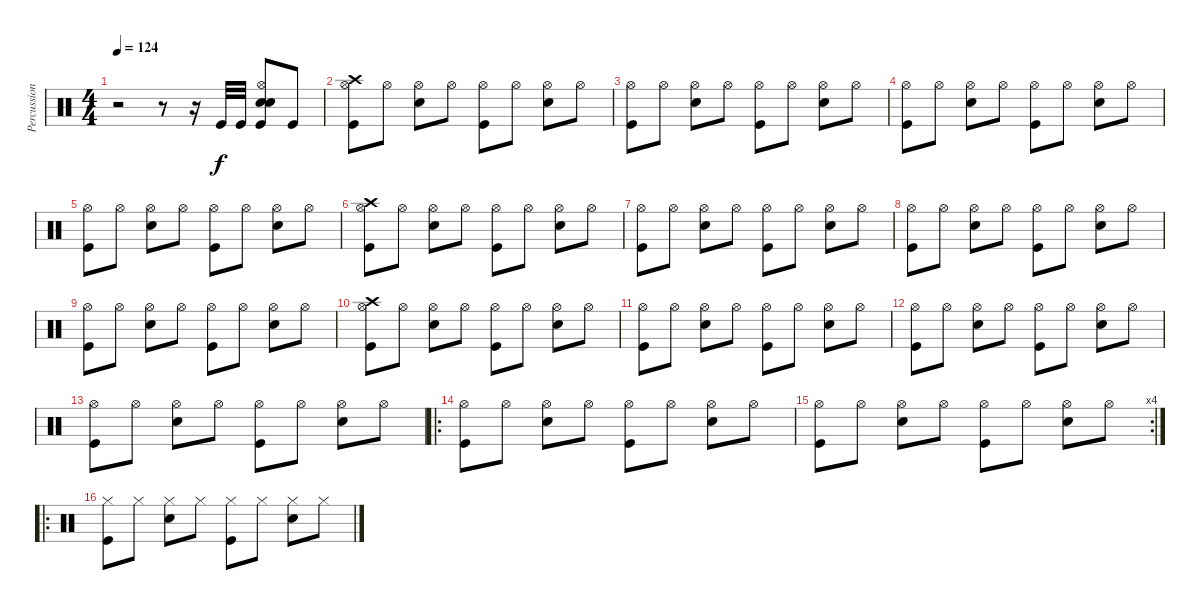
\track ("Percussions" "Percussion") {instrument percussion}
\staff {score}
\articulation defaults
\ts (4 4)
\tempo 124
\clef neutral
\ks c
r.2{dy f} r.8 r.16 "Kick (hit)".32 "Kick (hit)".32 ("Hi-Hat (open)" "Kick (hit)" "Electric Snare (hit)" "Snare (hit) 2").8 "Kick (hit)".8 |
("Hi-Hat (open)" "Kick (hit)" "Crash high (hit)").8 "Hi-Hat (open)".8 ("Hi-Hat (open)" "Electric Snare (hit)").8 "Hi-Hat (open)".8 ("Hi-Hat (open)" "Kick (hit)").8 "Hi-Hat (open)".8 ("Hi-Hat (open)" "Electric Snare (hit)").8 "Hi-Hat (open)".8 |
("Hi-Hat (open)" "Kick (hit)").8 "Hi-Hat (open)".8 ("Hi-Hat (open)" "Electric Snare (hit)").8 "Hi-Hat (open)".8 ("Hi-Hat (open)" "Kick (hit)").8 "Hi-Hat (open)".8 ("Hi-Hat (open)" "Electric Snare (hit)").8 "Hi-Hat (open)".8 |
("Hi-Hat (open)" "Kick (hit)").8 "Hi-Hat (open)".8 ("Hi-Hat (open)" "Electric Snare (hit)").8 "Hi-Hat (open)".8 ("Hi-Hat (open)" "Kick (hit)").8 "Hi-Hat (open)".8 ("Hi-Hat (open)" "Electric Snare (hit)").8 "Hi-Hat (open)".8 |
("Hi-Hat (open)" "Kick (hit)").8 "Hi-Hat (open)".8 ("Hi-Hat (open)" "Electric Snare (hit)").8 "Hi-Hat (open)".8 ("Hi-Hat (open)" "Kick (hit)").8 "Hi-Hat (open)".8 ("Hi-Hat (open)" "Electric Snare (hit)").8 "Hi-Hat (open)".8 |
("Hi-Hat (open)" "Kick (hit)" "Crash high (hit)").8 "Hi-Hat (open)".8 ("Hi-Hat (open)" "Electric Snare (hit)").8 "Hi-Hat (open)".8 ("Hi-Hat (open)" "Kick (hit)").8 "Hi-Hat (open)".8 ("Hi-Hat (open)" "Electric Snare (hit)").8 "Hi-Hat (open)".8 |
("Hi-Hat (open)" "Kick (hit)").8 "Hi-Hat (open)".8 ("Hi-Hat (open)" "Electric Snare (hit)").8 "Hi-Hat (open)".8 ("Hi-Hat (open)" "Kick (hit)").8 "Hi-Hat (open)".8 ("Hi-Hat (open)" "Electric Snare (hit)").8 "Hi-Hat (open)".8 |
("Hi-Hat (open)" "Kick (hit)").8 "Hi-Hat (open)".8 ("Hi-Hat (open)" "Electric Snare (hit)").8 "Hi-Hat (open)".8 ("Hi-Hat (open)" "Kick (hit)").8 "Hi-Hat (open)".8 ("Hi-Hat (open)" "Electric Snare (hit)").8 "Hi-Hat (open)".8 |
("Hi-Hat (open)" "Kick (hit)").8 "Hi-Hat (open)".8 ("Hi-Hat (open)" "Electric Snare (hit)").8 "Hi-Hat (open)".8 ("Hi-Hat (open)" "Kick (hit)").8 "Hi-Hat (open)".8 ("Hi-Hat (open)" "Electric Snare (hit)").8 "Hi-Hat (open)".8 |
("Hi-Hat (open)" "Kick (hit)" "Crash high (hit)").8 "Hi-Hat (open)".8 ("Hi-Hat (open)" "Electric Snare (hit)").8 "Hi-Hat (open)".8 ("Hi-Hat (open)" "Kick (hit)").8 "Hi-Hat (open)".8 ("Hi-Hat (open)" "Electric Snare (hit)").8 "Hi-Hat (open)".8 |
("Hi-Hat (open)" "Kick (hit)").8 "Hi-Hat (open)".8 ("Hi-Hat (open)" "Electric Snare (hit)").8 "Hi-Hat (open)".8 ("Hi-Hat (open)" "Kick (hit)").8 "Hi-Hat (open)".8 ("Hi-Hat (open)" "Electric Snare (hit)").8 "Hi-Hat (open)".8 |
("Hi-Hat (open)" "Kick (hit)").8 "Hi-Hat (open)".8 ("Hi-Hat (open)" "Electric Snare (hit)").8 "Hi-Hat (open)".8 ("Hi-Hat (open)" "Kick (hit)").8 "Hi-Hat (open)".8 ("Hi-Hat (open)" "Electric Snare (hit)").8 "Hi-Hat (open)".8 |
("Hi-Hat (open)" "Kick (hit)").8 "Hi-Hat (open)".8 ("Hi-Hat (open)" "Electric Snare (hit)").8 "Hi-Hat (open)".8 ("Hi-Hat (open)" "Kick (hit)").8 "Hi-Hat (open)".8 ("Hi-Hat (open)" "Electric Snare (hit)").8 "Hi-Hat (open)".8 |
\ro
("Hi-Hat (open)" "Kick (hit)").8 "Hi-Hat (open)".8 ("Hi-Hat (open)" "Electric Snare (hit)").8 "Hi-Hat (open)".8 ("Hi-Hat (open)" "Kick (hit)").8 "Hi-Hat (open)".8 ("Hi-Hat (open)" "Electric Snare (hit)").8 "Hi-Hat (open)".8 |
\rc 4
("Hi-Hat (open)" "Kick (hit)").8 "Hi-Hat (open)".8 ("Hi-Hat (open)" "Electric Snare (hit)").8 "Hi-Hat (open)".8 ("Hi-Hat (open)" "Kick (hit)").8 "Hi-Hat (open)".8 ("Hi-Hat (open)" "Electric Snare (hit)").8 "Hi-Hat (open)".8 |
\ro
("Hi-Hat (closed)" "Kick (hit)").8 "Hi-Hat (closed)".8 ("Hi-Hat (closed)" "Electric Snare (hit)").8 "Hi-Hat (closed)".8 ("Hi-Hat (closed)" "Kick (hit)").8 "Hi-Hat (closed)".8 ("Hi-Hat (closed)" "Electric Snare (hit)").8 "Hi-Hat (closed)".8
